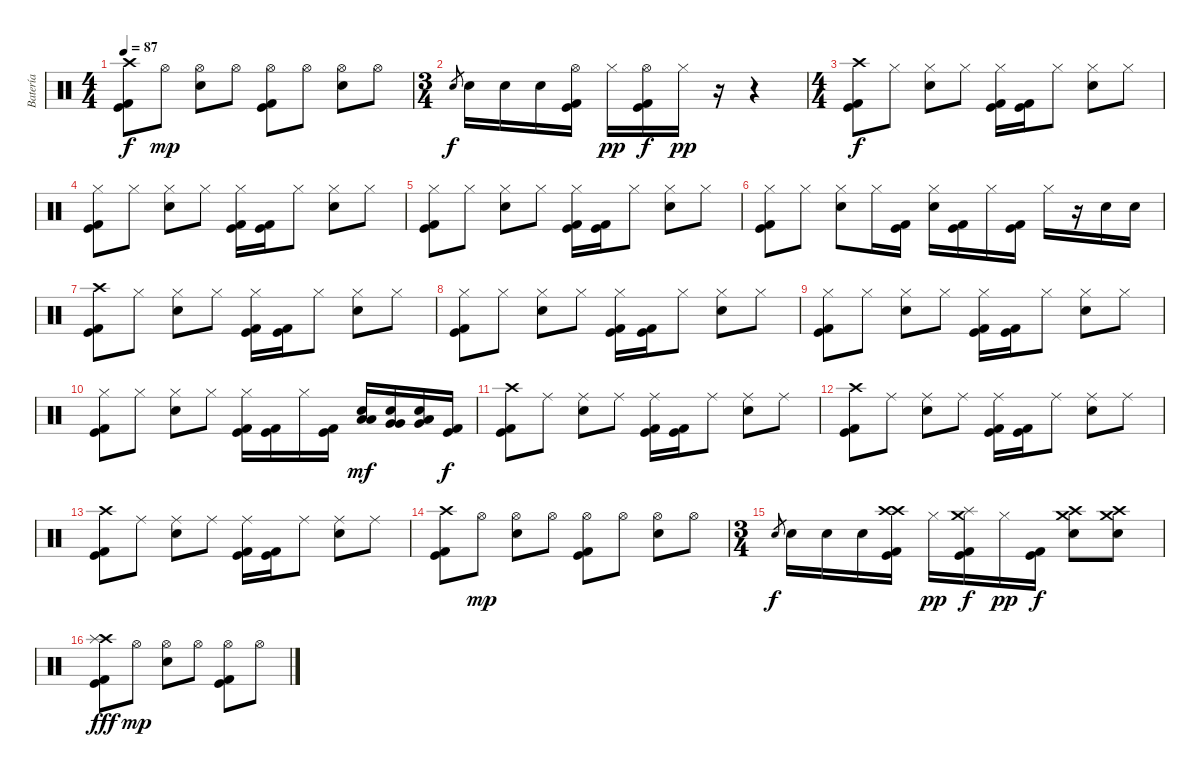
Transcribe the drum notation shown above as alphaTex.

\track ("Batería" "Batería") {instrument percussion}
\staff {score}
\articulation defaults
\ts (4 4)
\tempo 87
\clef neutral
\ks c
("Crash high (hit)" "Kick (hit)" "Kick (hit) 2").8{dy f} "Hi-Hat (open)".8{dy mp} ("Hi-Hat (open)" "Electric Snare (hit)").8 "Hi-Hat (open)".8 ("Hi-Hat (open)" "Kick (hit)" "Kick (hit) 2").8 "Hi-Hat (open)".8 ("Hi-Hat (open)" "Electric Snare (hit)").8 "Hi-Hat (open)".8 |
\ts (3 4)
"Electric Snare (hit)".8{gr dy f} "Electric Snare (hit)".16 "Electric Snare (hit)".16 "Electric Snare (hit)".16 ("Hi-Hat (open)" "Kick (hit)" "Kick (hit) 2").16 "Hi-Hat (closed)".16{dy pp} ("Hi-Hat (open)" "Kick (hit)" "Kick (hit) 2").16{dy f} "Hi-Hat (closed)".16{dy pp} r.16 r.4 |
\ts (4 4)
("Crash high (hit)" "Kick (hit)" "Kick (hit) 2").8{dy f} "Hi-Hat (closed)".8 ("Hi-Hat (closed)" "Electric Snare (hit)").8 "Hi-Hat (closed)".8 ("Hi-Hat (closed)" "Kick (hit)" "Kick (hit) 2").16 ("Kick (hit)" "Kick (hit) 2").16 "Hi-Hat (closed)".8 ("Hi-Hat (closed)" "Electric Snare (hit)").8 "Hi-Hat (closed)".8 |
("Hi-Hat (closed)" "Kick (hit)" "Kick (hit) 2").8 "Hi-Hat (closed)".8 ("Hi-Hat (closed)" "Electric Snare (hit)").8 "Hi-Hat (closed)".8 ("Hi-Hat (closed)" "Kick (hit)" "Kick (hit) 2").16 ("Kick (hit)" "Kick (hit) 2").16 "Hi-Hat (closed)".8 ("Hi-Hat (closed)" "Electric Snare (hit)").8 "Hi-Hat (closed)".8 |
("Hi-Hat (closed)" "Kick (hit)" "Kick (hit) 2").8 "Hi-Hat (closed)".8 ("Hi-Hat (closed)" "Electric Snare (hit)").8 "Hi-Hat (closed)".8 ("Hi-Hat (closed)" "Kick (hit)" "Kick (hit) 2").16 ("Kick (hit)" "Kick (hit) 2").16 "Hi-Hat (closed)".8 ("Hi-Hat (closed)" "Electric Snare (hit)").8 "Hi-Hat (closed)".8 |
("Hi-Hat (closed)" "Kick (hit)" "Kick (hit) 2").8 "Hi-Hat (closed)".8 ("Hi-Hat (closed)" "Electric Snare (hit)").8 "Hi-Hat (closed)".16 ("Kick (hit)" "Kick (hit) 2").16 ("Hi-Hat (closed)" "Electric Snare (hit)").16 ("Kick (hit)" "Kick (hit) 2").16 "Hi-Hat (closed)".16 ("Kick (hit)" "Kick (hit) 2").16 "Hi-Hat (closed)".16 r.16 "Electric Snare (hit)".16 "Electric Snare (hit)".16 |
("Crash high (hit)" "Kick (hit)" "Kick (hit) 2").8 "Hi-Hat (closed)".8 ("Hi-Hat (closed)" "Electric Snare (hit)").8 "Hi-Hat (closed)".8 ("Hi-Hat (closed)" "Kick (hit)" "Kick (hit) 2").16 ("Kick (hit)" "Kick (hit) 2").16 "Hi-Hat (closed)".8 ("Hi-Hat (closed)" "Electric Snare (hit)").8 "Hi-Hat (closed)".8 |
("Hi-Hat (closed)" "Kick (hit)" "Kick (hit) 2").8 "Hi-Hat (closed)".8 ("Hi-Hat (closed)" "Electric Snare (hit)").8 "Hi-Hat (closed)".8 ("Hi-Hat (closed)" "Kick (hit)" "Kick (hit) 2").16 ("Kick (hit)" "Kick (hit) 2").16 "Hi-Hat (closed)".8 ("Hi-Hat (closed)" "Electric Snare (hit)").8 "Hi-Hat (closed)".8 |
("Hi-Hat (closed)" "Kick (hit)" "Kick (hit) 2").8 "Hi-Hat (closed)".8 ("Hi-Hat (closed)" "Electric Snare (hit)").8 "Hi-Hat (closed)".8 ("Hi-Hat (closed)" "Kick (hit)" "Kick (hit) 2").16 ("Kick (hit)" "Kick (hit) 2").16 "Hi-Hat (closed)".8 ("Hi-Hat (closed)" "Electric Snare (hit)").8 "Hi-Hat (closed)".8 |
("Hi-Hat (closed)" "Kick (hit)" "Kick (hit) 2").8 "Hi-Hat (closed)".8 ("Hi-Hat (closed)" "Electric Snare (hit)").8 "Hi-Hat (closed)".8 ("Hi-Hat (closed)" "Kick (hit)" "Kick (hit) 2").16 ("Kick (hit)" "Kick (hit) 2").16 "Hi-Hat (closed)".16 ("Kick (hit)" "Kick (hit) 2").16 ("Electric Snare (hit)" "Low Tom (hit)" "Low Tom (hit)").16{dy mf} ("Electric Snare (hit)" "Very Low Tom (hit)" "Very Low Tom (hit)").16 ("Electric Snare (hit)" "Very Low Tom (hit)" "Low Floor Tom (hit)").16 ("Kick (hit)" "Kick (hit) 2").16{dy f} |
("Crash high (hit)" "Kick (hit)" "Kick (hit) 2").8 "Ride (middle)".8 ("Ride (middle)" "Electric Snare (hit)").8 "Ride (middle)".8 ("Ride (middle)" "Kick (hit)" "Kick (hit) 2").16 ("Kick (hit)" "Kick (hit) 2").16 "Ride (middle)".8 ("Ride (middle)" "Electric Snare (hit)").8 "Ride (middle)".8 |
("Crash high (hit)" "Kick (hit)" "Kick (hit) 2").8 "Ride (middle)".8 ("Ride (middle)" "Electric Snare (hit)").8 "Ride (middle)".8 ("Ride (middle)" "Kick (hit)" "Kick (hit) 2").16 ("Kick (hit)" "Kick (hit) 2").16 "Ride (middle)".8 ("Ride (middle)" "Electric Snare (hit)").8 "Ride (middle)".8 |
("Crash high (hit)" "Kick (hit)" "Kick (hit) 2").8 "Ride (middle)".8 ("Ride (middle)" "Electric Snare (hit)").8 "Ride (middle)".8 ("Ride (middle)" "Kick (hit)" "Kick (hit) 2").16 ("Kick (hit)" "Kick (hit) 2").16 "Ride (middle)".8 ("Ride (middle)" "Electric Snare (hit)").8 "Ride (middle)".8 |
("Crash high (hit)" "Kick (hit)" "Kick (hit) 2").8 "Hi-Hat (open)".8{dy mp} ("Hi-Hat (open)" "Electric Snare (hit)").8 "Hi-Hat (open)".8 ("Hi-Hat (open)" "Kick (hit)" "Kick (hit) 2").8 "Hi-Hat (open)".8 ("Hi-Hat (open)" "Electric Snare (hit)").8 "Hi-Hat (open)".8 |
\ts (3 4)
"Electric Snare (hit)".8{gr dy f} "Electric Snare (hit)".16 "Electric Snare (hit)".16 "Electric Snare (hit)".16 ("Crash high (hit)" "Crash high (hit)" "Kick (hit)" "Kick (hit) 2").16 "Hi-Hat (closed)".16{dy pp} ("Crash medium (hit)" "Splash (hit)" "Kick (hit)" "Kick (hit) 2").16{dy f} "Hi-Hat (closed)".16{dy pp} ("Kick (hit)" "Kick (hit) 2").16{dy f} ("Crash high (hit)" "Crash medium (hit)" "Electric Snare (hit)").8 ("Crash high (hit)" "Crash medium (hit)" "Electric Snare (hit)").8 |
("Crash high (hit)" "Splash (hit)" "Kick (hit)" "Kick (hit) 2").8{dy fff} "Hi-Hat (open)".8{dy mp} ("Hi-Hat (open)" "Electric Snare (hit)").8 "Hi-Hat (open)".8 ("Hi-Hat (open)" "Kick (hit)" "Kick (hit) 2").8 "Hi-Hat (open)".8
